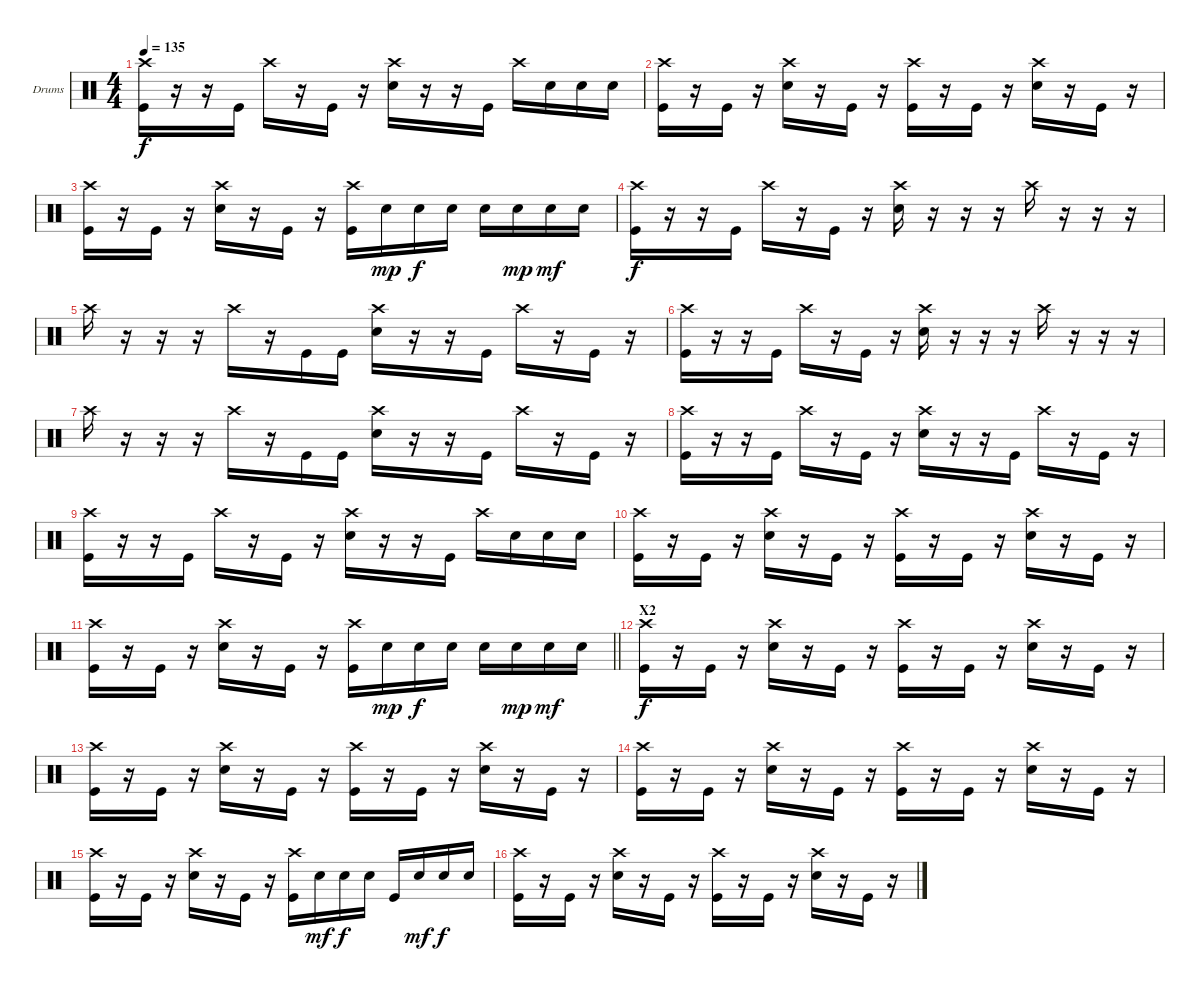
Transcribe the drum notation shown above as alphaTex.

\bracketExtendMode groupsimilarinstruments
\firstSystemTrackNameOrientation horizontal
\otherSystemsTrackNameOrientation horizontal
\track ("Drumkit" "Drums") {instrument percussion}
\staff {score}
\articulation defaults
\ts (4 4)
\tempo 135
\clef neutral
\ks c
("Crash high (hit)" "Kick (hit)").16{dy f} r.16 r.16 "Kick (hit)".16 "Crash high (hit)".16 r.16 "Kick (hit)".16 r.16 ("Crash high (hit)" "Snare (hit) 2").16 r.16 r.16 "Kick (hit)".16 "Crash high (hit)".16 "Snare (hit) 2".16 "Snare (hit) 2".16 "Snare (hit) 2".16 |
("Crash high (hit)" "Kick (hit)").16 r.16 "Kick (hit)".16 r.16 ("Crash high (hit)" "Snare (hit) 2").16 r.16 "Kick (hit)".16 r.16 ("Crash high (hit)" "Kick (hit)").16 r.16 "Kick (hit)".16 r.16 ("Crash high (hit)" "Snare (hit) 2").16 r.16 "Kick (hit)".16 r.16 |
("Crash high (hit)" "Kick (hit)").16 r.16 "Kick (hit)".16 r.16 ("Crash high (hit)" "Snare (hit) 2").16 r.16 "Kick (hit)".16 r.16 ("Crash high (hit)" "Kick (hit)").16 "Snare (hit) 2".16{dy mp} "Snare (hit) 2".16{dy f} "Snare (hit) 2".16 "Snare (hit) 2".16 "Snare (hit) 2".16{dy mp} "Snare (hit) 2".16{dy mf} "Snare (hit) 2".16 |
("Crash high (hit)" "Kick (hit)").16{dy f} r.16 r.16 "Kick (hit)".16 "Crash high (hit)".16 r.16 "Kick (hit)".16 r.16 ("Crash high (hit)" "Snare (hit) 2").16 r.16 r.16 r.16 "Crash high (hit)".16 r.16 r.16 r.16 |
"Crash high (hit)".16 r.16 r.16 r.16 "Crash high (hit)".16 r.16 "Kick (hit)".16 "Kick (hit)".16 ("Crash high (hit)" "Snare (hit) 2").16 r.16 r.16 "Kick (hit)".16 "Crash high (hit)".16 r.16 "Kick (hit)".16 r.16 |
("Crash high (hit)" "Kick (hit)").16 r.16 r.16 "Kick (hit)".16 "Crash high (hit)".16 r.16 "Kick (hit)".16 r.16 ("Crash high (hit)" "Snare (hit) 2").16 r.16 r.16 r.16 "Crash high (hit)".16 r.16 r.16 r.16 |
"Crash high (hit)".16 r.16 r.16 r.16 "Crash high (hit)".16 r.16 "Kick (hit)".16 "Kick (hit)".16 ("Crash high (hit)" "Snare (hit) 2").16 r.16 r.16 "Kick (hit)".16 "Crash high (hit)".16 r.16 "Kick (hit)".16 r.16 |
("Crash high (hit)" "Kick (hit)").16 r.16 r.16 "Kick (hit)".16 "Crash high (hit)".16 r.16 "Kick (hit)".16 r.16 ("Crash high (hit)" "Snare (hit) 2").16 r.16 r.16 "Kick (hit)".16 "Crash high (hit)".16 r.16 "Kick (hit)".16 r.16 |
("Crash high (hit)" "Kick (hit)").16 r.16 r.16 "Kick (hit)".16 "Crash high (hit)".16 r.16 "Kick (hit)".16 r.16 ("Crash high (hit)" "Snare (hit) 2").16 r.16 r.16 "Kick (hit)".16 "Crash high (hit)".16 "Snare (hit) 2".16 "Snare (hit) 2".16 "Snare (hit) 2".16 |
("Crash high (hit)" "Kick (hit)").16 r.16 "Kick (hit)".16 r.16 ("Crash high (hit)" "Snare (hit) 2").16 r.16 "Kick (hit)".16 r.16 ("Crash high (hit)" "Kick (hit)").16 r.16 "Kick (hit)".16 r.16 ("Crash high (hit)" "Snare (hit) 2").16 r.16 "Kick (hit)".16 r.16 |
\barLineRight lightlight
("Crash high (hit)" "Kick (hit)").16 r.16 "Kick (hit)".16 r.16 ("Crash high (hit)" "Snare (hit) 2").16 r.16 "Kick (hit)".16 r.16 ("Crash high (hit)" "Kick (hit)").16 "Snare (hit) 2".16{dy mp} "Snare (hit) 2".16{dy f} "Snare (hit) 2".16 "Snare (hit) 2".16 "Snare (hit) 2".16{dy mp} "Snare (hit) 2".16{dy mf} "Snare (hit) 2".16 |
\section ("" "X2")
("Crash high (hit)" "Kick (hit)").16{dy f} r.16 "Kick (hit)".16 r.16 ("Crash high (hit)" "Snare (hit) 2").16 r.16 "Kick (hit)".16 r.16 ("Crash high (hit)" "Kick (hit)").16 r.16 "Kick (hit)".16 r.16 ("Crash high (hit)" "Snare (hit) 2").16 r.16 "Kick (hit)".16 r.16 |
("Crash high (hit)" "Kick (hit)").16 r.16 "Kick (hit)".16 r.16 ("Crash high (hit)" "Snare (hit) 2").16 r.16 "Kick (hit)".16 r.16 ("Crash high (hit)" "Kick (hit)").16 r.16 "Kick (hit)".16 r.16 ("Crash high (hit)" "Snare (hit) 2").16 r.16 "Kick (hit)".16 r.16 |
("Crash high (hit)" "Kick (hit)").16 r.16 "Kick (hit)".16 r.16 ("Crash high (hit)" "Snare (hit) 2").16 r.16 "Kick (hit)".16 r.16 ("Crash high (hit)" "Kick (hit)").16 r.16 "Kick (hit)".16 r.16 ("Crash high (hit)" "Snare (hit) 2").16 r.16 "Kick (hit)".16 r.16 |
("Crash high (hit)" "Kick (hit)").16 r.16 "Kick (hit)".16 r.16 ("Crash high (hit)" "Snare (hit) 2").16 r.16 "Kick (hit)".16 r.16 ("Crash high (hit)" "Kick (hit)").16 "Snare (hit) 2".16{dy mf} "Snare (hit) 2".16{dy f} "Snare (hit) 2".16 "Kick (hit)".16 "Snare (hit) 2".16{dy mf} "Snare (hit) 2".16{dy f} "Snare (hit) 2".16 |
("Crash high (hit)" "Kick (hit)").16 r.16 "Kick (hit)".16 r.16 ("Crash high (hit)" "Snare (hit) 2").16 r.16 "Kick (hit)".16 r.16 ("Crash high (hit)" "Kick (hit)").16 r.16 "Kick (hit)".16 r.16 ("Crash high (hit)" "Snare (hit) 2").16 r.16 "Kick (hit)".16 r.16
